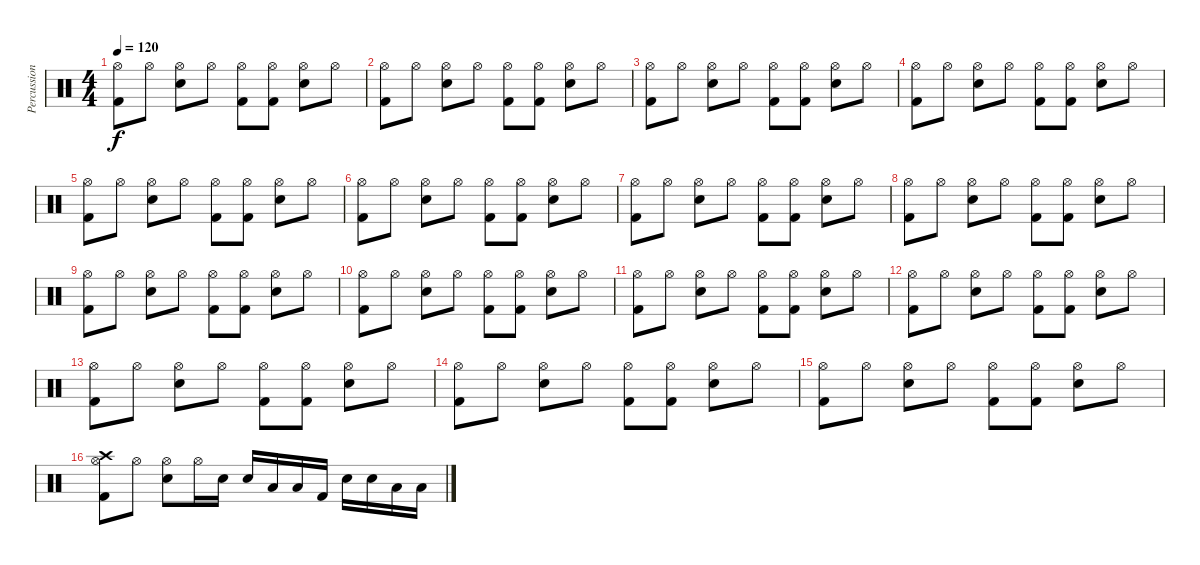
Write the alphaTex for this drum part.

\track ("Percussion" "Percussion") {instrument percussion}
\staff {score}
\articulation defaults
\ts (4 4)
\tempo 120
\clef neutral
\ks c
("Hi-Hat (open)" "Kick (hit) 2").8{dy f} "Hi-Hat (open)".8 ("Hi-Hat (open)" "Snare (hit) 2").8 "Hi-Hat (open)".8 ("Hi-Hat (open)" "Kick (hit) 2").8 ("Hi-Hat (open)" "Kick (hit) 2").8 ("Hi-Hat (open)" "Snare (hit) 2").8 "Hi-Hat (open)".8 |
("Hi-Hat (open)" "Kick (hit) 2").8 "Hi-Hat (open)".8 ("Hi-Hat (open)" "Snare (hit) 2").8 "Hi-Hat (open)".8 ("Hi-Hat (open)" "Kick (hit) 2").8 ("Hi-Hat (open)" "Kick (hit) 2").8 ("Hi-Hat (open)" "Snare (hit) 2").8 "Hi-Hat (open)".8 |
("Hi-Hat (open)" "Kick (hit) 2").8 "Hi-Hat (open)".8 ("Hi-Hat (open)" "Snare (hit) 2").8 "Hi-Hat (open)".8 ("Hi-Hat (open)" "Kick (hit) 2").8 ("Hi-Hat (open)" "Kick (hit) 2").8 ("Hi-Hat (open)" "Snare (hit) 2").8 "Hi-Hat (open)".8 |
("Hi-Hat (open)" "Kick (hit) 2").8 "Hi-Hat (open)".8 ("Hi-Hat (open)" "Snare (hit) 2").8 "Hi-Hat (open)".8 ("Hi-Hat (open)" "Kick (hit) 2").8 ("Hi-Hat (open)" "Kick (hit) 2").8 ("Hi-Hat (open)" "Snare (hit) 2").8 "Hi-Hat (open)".8 |
("Hi-Hat (open)" "Kick (hit) 2").8 "Hi-Hat (open)".8 ("Hi-Hat (open)" "Snare (hit) 2").8 "Hi-Hat (open)".8 ("Hi-Hat (open)" "Kick (hit) 2").8 ("Hi-Hat (open)" "Kick (hit) 2").8 ("Hi-Hat (open)" "Snare (hit) 2").8 "Hi-Hat (open)".8 |
("Hi-Hat (open)" "Kick (hit) 2").8 "Hi-Hat (open)".8 ("Hi-Hat (open)" "Snare (hit) 2").8 "Hi-Hat (open)".8 ("Hi-Hat (open)" "Kick (hit) 2").8 ("Hi-Hat (open)" "Kick (hit) 2").8 ("Hi-Hat (open)" "Snare (hit) 2").8 "Hi-Hat (open)".8 |
("Hi-Hat (open)" "Kick (hit) 2").8 "Hi-Hat (open)".8 ("Hi-Hat (open)" "Snare (hit) 2").8 "Hi-Hat (open)".8 ("Hi-Hat (open)" "Kick (hit) 2").8 ("Hi-Hat (open)" "Kick (hit) 2").8 ("Hi-Hat (open)" "Snare (hit) 2").8 "Hi-Hat (open)".8 |
("Hi-Hat (open)" "Kick (hit) 2").8 "Hi-Hat (open)".8 ("Hi-Hat (open)" "Snare (hit) 2").8 "Hi-Hat (open)".8 ("Hi-Hat (open)" "Kick (hit) 2").8 ("Hi-Hat (open)" "Kick (hit) 2").8 ("Hi-Hat (open)" "Snare (hit) 2").8 "Hi-Hat (open)".8 |
("Hi-Hat (open)" "Kick (hit) 2").8 "Hi-Hat (open)".8 ("Hi-Hat (open)" "Snare (hit) 2").8 "Hi-Hat (open)".8 ("Hi-Hat (open)" "Kick (hit) 2").8 ("Hi-Hat (open)" "Kick (hit) 2").8 ("Hi-Hat (open)" "Snare (hit) 2").8 "Hi-Hat (open)".8 |
("Hi-Hat (open)" "Kick (hit) 2").8 "Hi-Hat (open)".8 ("Hi-Hat (open)" "Snare (hit) 2").8 "Hi-Hat (open)".8 ("Hi-Hat (open)" "Kick (hit) 2").8 ("Hi-Hat (open)" "Kick (hit) 2").8 ("Hi-Hat (open)" "Snare (hit) 2").8 "Hi-Hat (open)".8 |
("Hi-Hat (open)" "Kick (hit) 2").8 "Hi-Hat (open)".8 ("Hi-Hat (open)" "Snare (hit) 2").8 "Hi-Hat (open)".8 ("Hi-Hat (open)" "Kick (hit) 2").8 ("Hi-Hat (open)" "Kick (hit) 2").8 ("Hi-Hat (open)" "Snare (hit) 2").8 "Hi-Hat (open)".8 |
("Hi-Hat (open)" "Kick (hit) 2").8 "Hi-Hat (open)".8 ("Hi-Hat (open)" "Snare (hit) 2").8 "Hi-Hat (open)".8 ("Hi-Hat (open)" "Kick (hit) 2").8 ("Hi-Hat (open)" "Kick (hit) 2").8 ("Hi-Hat (open)" "Snare (hit) 2").8 "Hi-Hat (open)".8 |
("Hi-Hat (open)" "Kick (hit) 2").8 "Hi-Hat (open)".8 ("Hi-Hat (open)" "Snare (hit) 2").8 "Hi-Hat (open)".8 ("Hi-Hat (open)" "Kick (hit) 2").8 ("Hi-Hat (open)" "Kick (hit) 2").8 ("Hi-Hat (open)" "Snare (hit) 2").8 "Hi-Hat (open)".8 |
("Hi-Hat (open)" "Kick (hit) 2").8 "Hi-Hat (open)".8 ("Hi-Hat (open)" "Snare (hit) 2").8 "Hi-Hat (open)".8 ("Hi-Hat (open)" "Kick (hit) 2").8 ("Hi-Hat (open)" "Kick (hit) 2").8 ("Hi-Hat (open)" "Snare (hit) 2").8 "Hi-Hat (open)".8 |
("Hi-Hat (open)" "Kick (hit) 2").8 "Hi-Hat (open)".8 ("Hi-Hat (open)" "Snare (hit) 2").8 "Hi-Hat (open)".8 ("Hi-Hat (open)" "Kick (hit) 2").8 ("Hi-Hat (open)" "Kick (hit) 2").8 ("Hi-Hat (open)" "Snare (hit) 2").8 "Hi-Hat (open)".8 |
("Hi-Hat (open)" "Crash high (hit)" "Kick (hit) 2").8 "Hi-Hat (open)".8 ("Hi-Hat (open)" "Snare (hit) 2").8 "Hi-Hat (open)".16 "Snare (hit) 2".16 "Snare (hit) 2".16 "Low Floor Tom (hit)".16 "Low Floor Tom (hit)".16 "Kick (hit) 2".16 "Snare (hit) 2".16 "Snare (hit) 2".16 "Low Floor Tom (hit)".16 "Low Floor Tom (hit)".16
